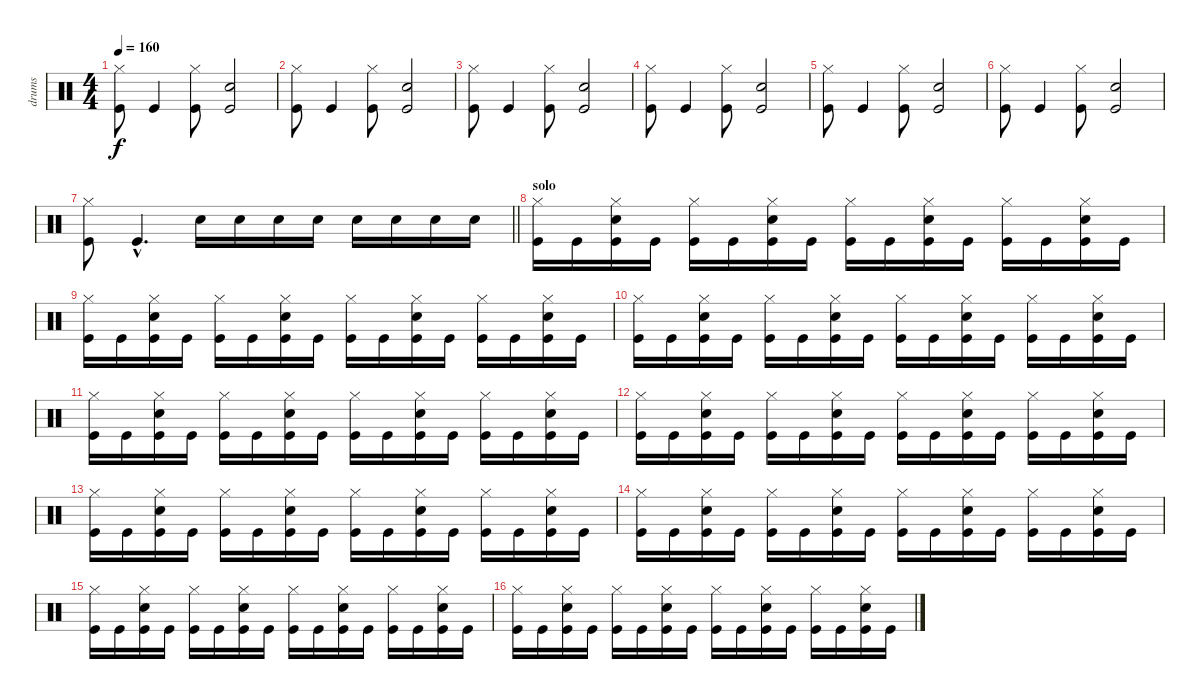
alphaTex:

\track ("drums" "drums") {instrument percussion}
\staff {score}
\articulation defaults
\ts (4 4)
\tempo 160
\clef neutral
\ks c
("Kick (hit)" "Hi-Hat (closed)").8{dy f} "Kick (hit)".4 ("Kick (hit)" "Hi-Hat (closed)").8 ("Kick (hit)" "Snare (hit) 2").2 |
("Kick (hit)" "Hi-Hat (closed)").8 "Kick (hit)".4 ("Kick (hit)" "Hi-Hat (closed)").8 ("Kick (hit)" "Snare (hit) 2").2 |
("Kick (hit)" "Hi-Hat (closed)").8 "Kick (hit)".4 ("Kick (hit)" "Hi-Hat (closed)").8 ("Kick (hit)" "Snare (hit) 2").2 |
("Kick (hit)" "Hi-Hat (closed)").8 "Kick (hit)".4 ("Kick (hit)" "Hi-Hat (closed)").8 ("Kick (hit)" "Snare (hit) 2").2 |
("Kick (hit)" "Hi-Hat (closed)").8 "Kick (hit)".4 ("Kick (hit)" "Hi-Hat (closed)").8 ("Kick (hit)" "Snare (hit) 2").2 |
("Kick (hit)" "Hi-Hat (closed)").8 "Kick (hit)".4 ("Kick (hit)" "Hi-Hat (closed)").8 ("Kick (hit)" "Snare (hit) 2").2 |
\barLineRight lightlight
("Kick (hit)" "Hi-Hat (closed)").8 "Kick (hit)"{hac}.4{d} "Snare (hit) 2".16 "Snare (hit) 2".16 "Snare (hit) 2".16 "Snare (hit) 2".16 "Snare (hit) 2".16 "Snare (hit) 2".16 "Snare (hit) 2".16 "Snare (hit) 2".16 |
\section ("" "solo")
("Kick (hit)" "Hi-Hat (closed)").16 "Kick (hit)".16 ("Kick (hit)" "Hi-Hat (closed)" "Snare (hit) 2").16 "Kick (hit)".16 ("Kick (hit)" "Hi-Hat (closed)").16 "Kick (hit)".16 ("Kick (hit)" "Hi-Hat (closed)" "Snare (hit) 2").16 "Kick (hit)".16 ("Kick (hit)" "Hi-Hat (closed)").16 "Kick (hit)".16 ("Kick (hit)" "Hi-Hat (closed)" "Snare (hit) 2").16 "Kick (hit)".16 ("Kick (hit)" "Hi-Hat (closed)").16 "Kick (hit)".16 ("Kick (hit)" "Hi-Hat (closed)" "Snare (hit) 2").16 "Kick (hit)".16 |
("Kick (hit)" "Hi-Hat (closed)").16 "Kick (hit)".16 ("Kick (hit)" "Hi-Hat (closed)" "Snare (hit) 2").16 "Kick (hit)".16 ("Kick (hit)" "Hi-Hat (closed)").16 "Kick (hit)".16 ("Kick (hit)" "Hi-Hat (closed)" "Snare (hit) 2").16 "Kick (hit)".16 ("Kick (hit)" "Hi-Hat (closed)").16 "Kick (hit)".16 ("Kick (hit)" "Hi-Hat (closed)" "Snare (hit) 2").16 "Kick (hit)".16 ("Kick (hit)" "Hi-Hat (closed)").16 "Kick (hit)".16 ("Kick (hit)" "Hi-Hat (closed)" "Snare (hit) 2").16 "Kick (hit)".16 |
("Kick (hit)" "Hi-Hat (closed)").16 "Kick (hit)".16 ("Kick (hit)" "Hi-Hat (closed)" "Snare (hit) 2").16 "Kick (hit)".16 ("Kick (hit)" "Hi-Hat (closed)").16 "Kick (hit)".16 ("Kick (hit)" "Hi-Hat (closed)" "Snare (hit) 2").16 "Kick (hit)".16 ("Kick (hit)" "Hi-Hat (closed)").16 "Kick (hit)".16 ("Kick (hit)" "Hi-Hat (closed)" "Snare (hit) 2").16 "Kick (hit)".16 ("Kick (hit)" "Hi-Hat (closed)").16 "Kick (hit)".16 ("Kick (hit)" "Hi-Hat (closed)" "Snare (hit) 2").16 "Kick (hit)".16 |
("Kick (hit)" "Hi-Hat (closed)").16 "Kick (hit)".16 ("Kick (hit)" "Hi-Hat (closed)" "Snare (hit) 2").16 "Kick (hit)".16 ("Kick (hit)" "Hi-Hat (closed)").16 "Kick (hit)".16 ("Kick (hit)" "Hi-Hat (closed)" "Snare (hit) 2").16 "Kick (hit)".16 ("Kick (hit)" "Hi-Hat (closed)").16 "Kick (hit)".16 ("Kick (hit)" "Hi-Hat (closed)" "Snare (hit) 2").16 "Kick (hit)".16 ("Kick (hit)" "Hi-Hat (closed)").16 "Kick (hit)".16 ("Kick (hit)" "Hi-Hat (closed)" "Snare (hit) 2").16 "Kick (hit)".16 |
("Kick (hit)" "Hi-Hat (closed)").16 "Kick (hit)".16 ("Kick (hit)" "Hi-Hat (closed)" "Snare (hit) 2").16 "Kick (hit)".16 ("Kick (hit)" "Hi-Hat (closed)").16 "Kick (hit)".16 ("Kick (hit)" "Hi-Hat (closed)" "Snare (hit) 2").16 "Kick (hit)".16 ("Kick (hit)" "Hi-Hat (closed)").16 "Kick (hit)".16 ("Kick (hit)" "Hi-Hat (closed)" "Snare (hit) 2").16 "Kick (hit)".16 ("Kick (hit)" "Hi-Hat (closed)").16 "Kick (hit)".16 ("Kick (hit)" "Hi-Hat (closed)" "Snare (hit) 2").16 "Kick (hit)".16 |
("Kick (hit)" "Hi-Hat (closed)").16 "Kick (hit)".16 ("Kick (hit)" "Hi-Hat (closed)" "Snare (hit) 2").16 "Kick (hit)".16 ("Kick (hit)" "Hi-Hat (closed)").16 "Kick (hit)".16 ("Kick (hit)" "Hi-Hat (closed)" "Snare (hit) 2").16 "Kick (hit)".16 ("Kick (hit)" "Hi-Hat (closed)").16 "Kick (hit)".16 ("Kick (hit)" "Hi-Hat (closed)" "Snare (hit) 2").16 "Kick (hit)".16 ("Kick (hit)" "Hi-Hat (closed)").16 "Kick (hit)".16 ("Kick (hit)" "Hi-Hat (closed)" "Snare (hit) 2").16 "Kick (hit)".16 |
("Kick (hit)" "Hi-Hat (closed)").16 "Kick (hit)".16 ("Kick (hit)" "Hi-Hat (closed)" "Snare (hit) 2").16 "Kick (hit)".16 ("Kick (hit)" "Hi-Hat (closed)").16 "Kick (hit)".16 ("Kick (hit)" "Hi-Hat (closed)" "Snare (hit) 2").16 "Kick (hit)".16 ("Kick (hit)" "Hi-Hat (closed)").16 "Kick (hit)".16 ("Kick (hit)" "Hi-Hat (closed)" "Snare (hit) 2").16 "Kick (hit)".16 ("Kick (hit)" "Hi-Hat (closed)").16 "Kick (hit)".16 ("Kick (hit)" "Hi-Hat (closed)" "Snare (hit) 2").16 "Kick (hit)".16 |
("Kick (hit)" "Hi-Hat (closed)").16 "Kick (hit)".16 ("Kick (hit)" "Hi-Hat (closed)" "Snare (hit) 2").16 "Kick (hit)".16 ("Kick (hit)" "Hi-Hat (closed)").16 "Kick (hit)".16 ("Kick (hit)" "Hi-Hat (closed)" "Snare (hit) 2").16 "Kick (hit)".16 ("Kick (hit)" "Hi-Hat (closed)").16 "Kick (hit)".16 ("Kick (hit)" "Hi-Hat (closed)" "Snare (hit) 2").16 "Kick (hit)".16 ("Kick (hit)" "Hi-Hat (closed)").16 "Kick (hit)".16 ("Kick (hit)" "Hi-Hat (closed)" "Snare (hit) 2").16 "Kick (hit)".16 |
("Kick (hit)" "Hi-Hat (closed)").16 "Kick (hit)".16 ("Kick (hit)" "Hi-Hat (closed)" "Snare (hit) 2").16 "Kick (hit)".16 ("Kick (hit)" "Hi-Hat (closed)").16 "Kick (hit)".16 ("Kick (hit)" "Hi-Hat (closed)" "Snare (hit) 2").16 "Kick (hit)".16 ("Kick (hit)" "Hi-Hat (closed)").16 "Kick (hit)".16 ("Kick (hit)" "Hi-Hat (closed)" "Snare (hit) 2").16 "Kick (hit)".16 ("Kick (hit)" "Hi-Hat (closed)").16 "Kick (hit)".16 ("Kick (hit)" "Hi-Hat (closed)" "Snare (hit) 2").16 "Kick (hit)".16
